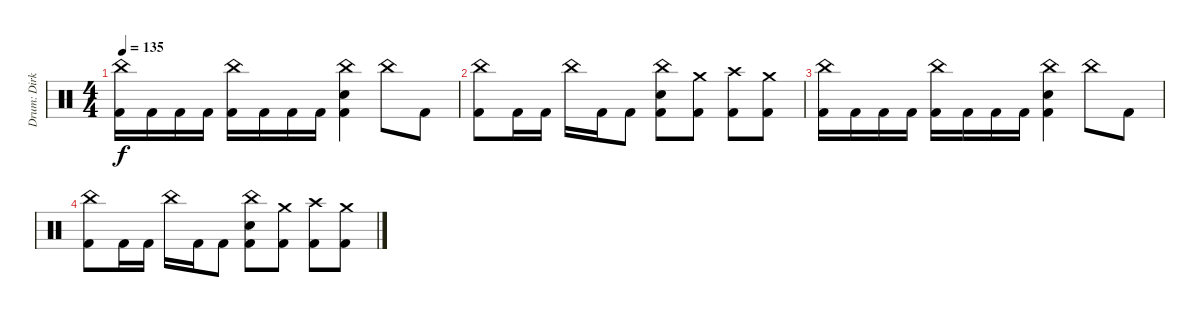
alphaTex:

\track ("Drum: Dirk" "Drum: Dirk") {instrument percussion}
\staff {score}
\articulation defaults
\ts (4 4)
\tempo 135
\clef neutral
\ks c
("China (hit)" "Kick (hit) 2").16{dy f} "Kick (hit) 2".16 "Kick (hit) 2".16 "Kick (hit) 2".16 ("China (hit)" "Kick (hit) 2").16 "Kick (hit) 2".16 "Kick (hit) 2".16 "Kick (hit) 2".16 ("China (hit)" "Electric Snare (hit)" "Kick (hit) 2").4 "China (hit)".8 "Kick (hit) 2".8 |
("China (hit)" "Kick (hit) 2").8 "Kick (hit) 2".16 "Kick (hit) 2".16 "China (hit)".16 "Kick (hit) 2".16 "Kick (hit) 2".8 ("China (hit)" "Electric Snare (hit)" "Kick (hit) 2").8 ("Crash medium (hit)" "Kick (hit) 2").8 ("Crash high (hit)" "Kick (hit) 2").8 ("Crash medium (hit)" "Kick (hit) 2").8 |
("China (hit)" "Kick (hit) 2").16 "Kick (hit) 2".16 "Kick (hit) 2".16 "Kick (hit) 2".16 ("China (hit)" "Kick (hit) 2").16 "Kick (hit) 2".16 "Kick (hit) 2".16 "Kick (hit) 2".16 ("China (hit)" "Electric Snare (hit)" "Kick (hit) 2").4 "China (hit)".8 "Kick (hit) 2".8 |
("China (hit)" "Kick (hit) 2").8 "Kick (hit) 2".16 "Kick (hit) 2".16 "China (hit)".16 "Kick (hit) 2".16 "Kick (hit) 2".8 ("China (hit)" "Electric Snare (hit)" "Kick (hit) 2").8 ("Crash medium (hit)" "Kick (hit) 2").8 ("Crash high (hit)" "Kick (hit) 2").8 ("Crash medium (hit)" "Kick (hit) 2").8
